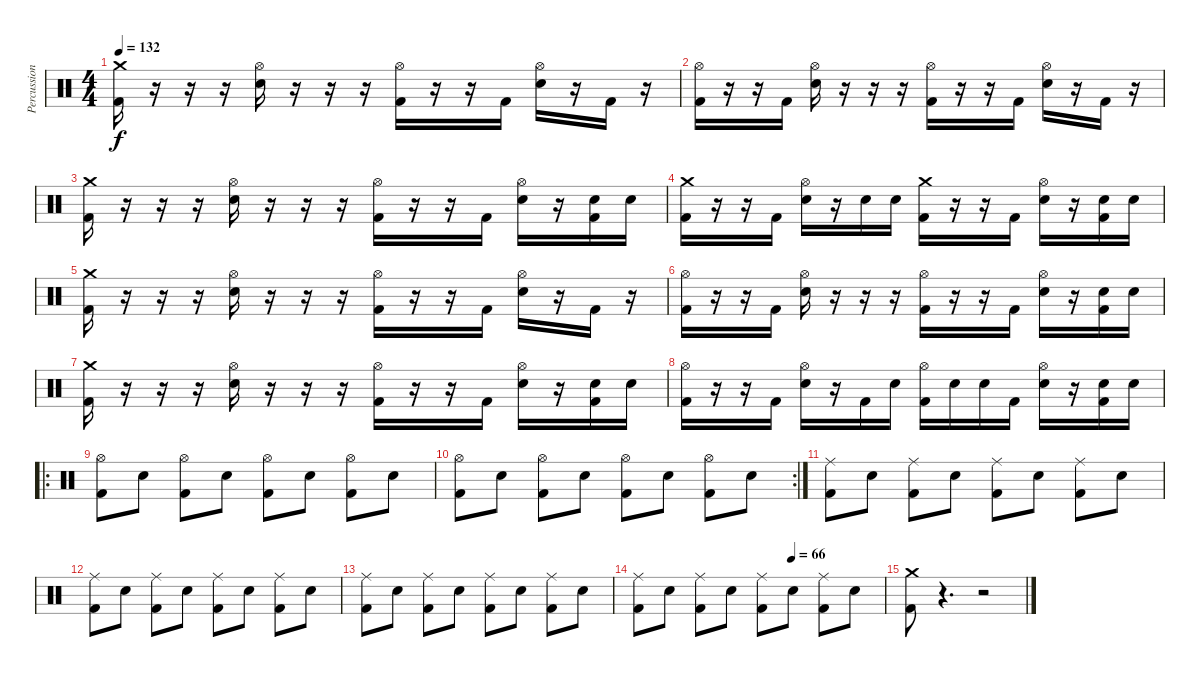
\track ("Percussion" "Percussion") {instrument percussion}
\staff {score}
\articulation defaults
\ts (4 4)
\tempo 132
\clef neutral
\ks c
("Crash medium (hit)" "Kick (hit) 2").16{dy f} r.16 r.16 r.16 ("Hi-Hat (open)" "Snare (hit) 2").16 r.16 r.16 r.16 ("Hi-Hat (open)" "Kick (hit) 2").16 r.16 r.16 "Kick (hit) 2".16 ("Hi-Hat (open)" "Snare (hit) 2").16 r.16 "Kick (hit) 2".16 r.16 |
("Hi-Hat (open)" "Kick (hit) 2").16 r.16 r.16 "Kick (hit) 2".16 ("Hi-Hat (open)" "Snare (hit) 2").16 r.16 r.16 r.16 ("Hi-Hat (open)" "Kick (hit) 2").16 r.16 r.16 "Kick (hit) 2".16 ("Hi-Hat (open)" "Snare (hit) 2").16 r.16 "Kick (hit) 2".16 r.16 |
("Crash medium (hit)" "Kick (hit) 2").16 r.16 r.16 r.16 ("Hi-Hat (open)" "Snare (hit) 2").16 r.16 r.16 r.16 ("Hi-Hat (open)" "Kick (hit) 2").16 r.16 r.16 "Kick (hit) 2".16 ("Hi-Hat (open)" "Snare (hit) 2").16 r.16 ("Kick (hit) 2" "Snare (hit) 2").16 "Snare (hit) 2".16 |
("Crash medium (hit)" "Kick (hit) 2").16 r.16 r.16 "Kick (hit) 2".16 ("Hi-Hat (open)" "Snare (hit) 2").16 r.16 "Snare (hit) 2".16 "Snare (hit) 2".16 ("Crash medium (hit)" "Kick (hit) 2").16 r.16 r.16 "Kick (hit) 2".16 ("Hi-Hat (open)" "Snare (hit) 2").16 r.16 ("Kick (hit) 2" "Snare (hit) 2").16 "Snare (hit) 2".16 |
("Crash medium (hit)" "Kick (hit) 2").16 r.16 r.16 r.16 ("Hi-Hat (open)" "Snare (hit) 2").16 r.16 r.16 r.16 ("Hi-Hat (open)" "Kick (hit) 2").16 r.16 r.16 "Kick (hit) 2".16 ("Hi-Hat (open)" "Snare (hit) 2").16 r.16 "Kick (hit) 2".16 r.16 |
("Hi-Hat (open)" "Kick (hit) 2").16 r.16 r.16 "Kick (hit) 2".16 ("Hi-Hat (open)" "Snare (hit) 2").16 r.16 r.16 r.16 ("Hi-Hat (open)" "Kick (hit) 2").16 r.16 r.16 "Kick (hit) 2".16 ("Hi-Hat (open)" "Snare (hit) 2").16 r.16 ("Kick (hit) 2" "Snare (hit) 2").16 "Snare (hit) 2".16 |
("Crash medium (hit)" "Kick (hit) 2").16 r.16 r.16 r.16 ("Hi-Hat (open)" "Snare (hit) 2").16 r.16 r.16 r.16 ("Hi-Hat (open)" "Kick (hit) 2").16 r.16 r.16 "Kick (hit) 2".16 ("Hi-Hat (open)" "Snare (hit) 2").16 r.16 ("Kick (hit) 2" "Snare (hit) 2").16 "Snare (hit) 2".16 |
("Hi-Hat (open)" "Kick (hit) 2").16 r.16 r.16 "Kick (hit) 2".16 ("Hi-Hat (open)" "Snare (hit) 2").16 r.16 "Kick (hit) 2".16 "Snare (hit) 2".16 ("Hi-Hat (open)" "Kick (hit) 2").16 "Snare (hit) 2".16 "Snare (hit) 2".16 "Kick (hit) 2".16 ("Hi-Hat (open)" "Snare (hit) 2").16 r.16 ("Kick (hit) 2" "Snare (hit) 2").16 "Snare (hit) 2".16 |
\ro
("Kick (hit) 2" "Hi-Hat (open)").8 "Snare (hit) 2".8 ("Kick (hit) 2" "Hi-Hat (open)").8 "Snare (hit) 2".8 ("Kick (hit) 2" "Hi-Hat (open)").8 "Snare (hit) 2".8 ("Kick (hit) 2" "Hi-Hat (open)").8 "Snare (hit) 2".8 |
\rc 2
("Kick (hit) 2" "Hi-Hat (open)").8 "Snare (hit) 2".8 ("Kick (hit) 2" "Hi-Hat (open)").8 "Snare (hit) 2".8 ("Kick (hit) 2" "Hi-Hat (open)").8 "Snare (hit) 2".8 ("Kick (hit) 2" "Hi-Hat (open)").8 "Snare (hit) 2".8 |
("Kick (hit) 2" "Ride (middle)").8 "Snare (hit) 2".8 ("Kick (hit) 2" "Ride (middle)").8 "Snare (hit) 2".8 ("Kick (hit) 2" "Ride (middle)").8 "Snare (hit) 2".8 ("Kick (hit) 2" "Ride (middle)").8 "Snare (hit) 2".8 |
("Kick (hit) 2" "Ride (middle)").8 "Snare (hit) 2".8 ("Kick (hit) 2" "Ride (middle)").8 "Snare (hit) 2".8 ("Kick (hit) 2" "Ride (middle)").8 "Snare (hit) 2".8 ("Kick (hit) 2" "Ride (middle)").8 "Snare (hit) 2".8 |
("Kick (hit) 2" "Ride (middle)").8 "Snare (hit) 2".8 ("Kick (hit) 2" "Ride (middle)").8 "Snare (hit) 2".8 ("Kick (hit) 2" "Ride (middle)").8 "Snare (hit) 2".8 ("Kick (hit) 2" "Ride (middle)").8 "Snare (hit) 2".8 |
\tempo (66 0.625)
("Kick (hit) 2" "Ride (middle)").8 "Snare (hit) 2".8 ("Kick (hit) 2" "Ride (middle)").8 "Snare (hit) 2".8 ("Kick (hit) 2" "Ride (middle)").8 "Snare (hit) 2".8 ("Kick (hit) 2" "Ride (middle)").8 "Snare (hit) 2".8 |
("Crash medium (hit)" "Kick (hit) 2").8 r.4{d} r.2
